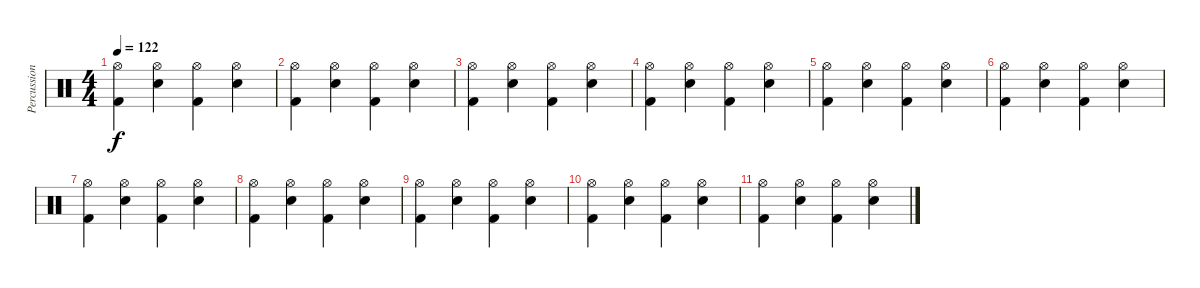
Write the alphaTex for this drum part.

\track ("Percussion" "Percussion") {instrument percussion}
\staff {score}
\articulation defaults
\ts (4 4)
\tempo 122
\clef neutral
\ks c
("Hi-Hat (open)" "Kick (hit) 2").4{dy f} ("Hi-Hat (open)" "Electric Snare (hit)").4 ("Hi-Hat (open)" "Kick (hit) 2").4 ("Hi-Hat (open)" "Electric Snare (hit)").4 |
("Hi-Hat (open)" "Kick (hit) 2").4 ("Hi-Hat (open)" "Electric Snare (hit)").4 ("Hi-Hat (open)" "Kick (hit) 2").4 ("Hi-Hat (open)" "Electric Snare (hit)").4 |
("Hi-Hat (open)" "Kick (hit) 2").4 ("Hi-Hat (open)" "Electric Snare (hit)").4 ("Hi-Hat (open)" "Kick (hit) 2").4 ("Hi-Hat (open)" "Electric Snare (hit)").4 |
("Hi-Hat (open)" "Kick (hit) 2").4 ("Hi-Hat (open)" "Electric Snare (hit)").4 ("Hi-Hat (open)" "Kick (hit) 2").4 ("Hi-Hat (open)" "Electric Snare (hit)").4 |
("Hi-Hat (open)" "Kick (hit) 2").4 ("Hi-Hat (open)" "Electric Snare (hit)").4 ("Hi-Hat (open)" "Kick (hit) 2").4 ("Hi-Hat (open)" "Electric Snare (hit)").4 |
("Hi-Hat (open)" "Kick (hit) 2").4 ("Hi-Hat (open)" "Electric Snare (hit)").4 ("Hi-Hat (open)" "Kick (hit) 2").4 ("Hi-Hat (open)" "Electric Snare (hit)").4 |
("Hi-Hat (open)" "Kick (hit) 2").4 ("Hi-Hat (open)" "Electric Snare (hit)").4 ("Hi-Hat (open)" "Kick (hit) 2").4 ("Hi-Hat (open)" "Electric Snare (hit)").4 |
("Hi-Hat (open)" "Kick (hit) 2").4 ("Hi-Hat (open)" "Electric Snare (hit)").4 ("Hi-Hat (open)" "Kick (hit) 2").4 ("Hi-Hat (open)" "Electric Snare (hit)").4 |
("Hi-Hat (open)" "Kick (hit) 2").4 ("Hi-Hat (open)" "Electric Snare (hit)").4 ("Hi-Hat (open)" "Kick (hit) 2").4 ("Hi-Hat (open)" "Electric Snare (hit)").4 |
("Hi-Hat (open)" "Kick (hit) 2").4 ("Hi-Hat (open)" "Electric Snare (hit)").4 ("Hi-Hat (open)" "Kick (hit) 2").4 ("Hi-Hat (open)" "Electric Snare (hit)").4 |
("Hi-Hat (open)" "Kick (hit) 2").4 ("Hi-Hat (open)" "Electric Snare (hit)").4 ("Hi-Hat (open)" "Kick (hit) 2").4 ("Hi-Hat (open)" "Electric Snare (hit)").4
